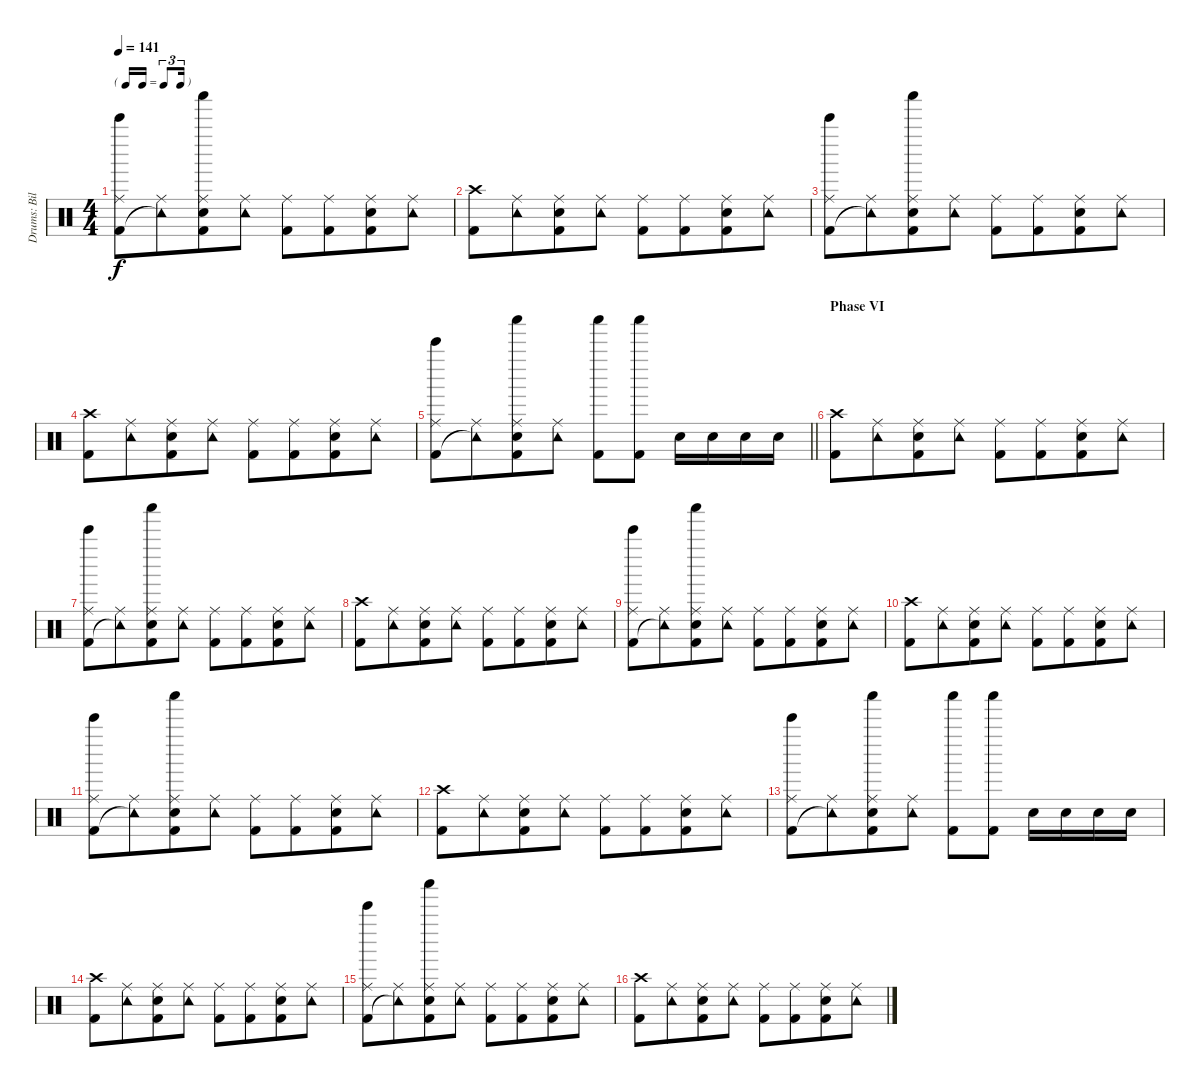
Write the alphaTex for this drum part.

\track ("Drums: Bill" "Drums: Bil") {instrument percussion}
\staff {score}
\articulation defaults
\ts (4 4)
\tf triplet16th
\tempo 141
\clef neutral
\ks c
("Ride (middle)" "Kick (hit) 2" "Bell Tree (hit)").8{dy f} ("Ride (middle)" "Tambourine (hit)"{t}).8{beam merge} ("Ride (middle)" "Electric Snare (hit)" "Kick (hit) 2" "Shaker (hit)").8 ("Ride (middle)" "Tambourine (hit)").8 ("Ride (middle)" "Kick (hit) 2").8 ("Ride (middle)" "Kick (hit) 2").8{beam merge} ("Ride (middle)" "Electric Snare (hit)" "Kick (hit) 2").8 ("Ride (middle)" "Tambourine (hit)").8 |
("Crash high (hit)" "Kick (hit) 2").8 ("Ride (middle)" "Tambourine (hit)").8{beam merge} ("Ride (middle)" "Electric Snare (hit)" "Kick (hit) 2").8 ("Ride (middle)" "Tambourine (hit)").8 ("Ride (middle)" "Kick (hit) 2").8 ("Ride (middle)" "Kick (hit) 2").8{beam merge} ("Ride (middle)" "Electric Snare (hit)" "Kick (hit) 2").8 ("Ride (middle)" "Tambourine (hit)").8 |
("Ride (middle)" "Kick (hit) 2" "Bell Tree (hit)").8 ("Ride (middle)" "Tambourine (hit)"{t}).8{beam merge} ("Ride (middle)" "Electric Snare (hit)" "Kick (hit) 2" "Shaker (hit)").8 ("Ride (middle)" "Tambourine (hit)").8 ("Ride (middle)" "Kick (hit) 2").8 ("Ride (middle)" "Kick (hit) 2").8{beam merge} ("Ride (middle)" "Electric Snare (hit)" "Kick (hit) 2").8 ("Ride (middle)" "Tambourine (hit)").8 |
("Crash high (hit)" "Kick (hit) 2").8 ("Ride (middle)" "Tambourine (hit)").8{beam merge} ("Ride (middle)" "Electric Snare (hit)" "Kick (hit) 2").8 ("Ride (middle)" "Tambourine (hit)").8 ("Ride (middle)" "Kick (hit) 2").8 ("Ride (middle)" "Kick (hit) 2").8{beam merge} ("Ride (middle)" "Electric Snare (hit)" "Kick (hit) 2").8 ("Ride (middle)" "Tambourine (hit)").8 |
\barLineRight lightlight
("Ride (middle)" "Kick (hit) 2" "Bell Tree (hit)").8 ("Ride (middle)" "Tambourine (hit)"{t}).8{beam merge} ("Ride (middle)" "Electric Snare (hit)" "Kick (hit) 2" "Shaker (hit)").8 ("Ride (middle)" "Tambourine (hit)").8 ("Shaker (hit)" "Kick (hit) 2").8 ("Shaker (hit)" "Kick (hit) 2").8 "Electric Snare (hit)".16 "Electric Snare (hit)".16 "Electric Snare (hit)".16 "Electric Snare (hit)".16 |
\section ("" "Phase VI")
("Crash high (hit)" "Kick (hit) 2").8 ("Ride (middle)" "Tambourine (hit)").8{beam merge} ("Ride (middle)" "Electric Snare (hit)" "Kick (hit) 2").8 ("Ride (middle)" "Tambourine (hit)").8 ("Ride (middle)" "Kick (hit) 2").8 ("Ride (middle)" "Kick (hit) 2").8{beam merge} ("Ride (middle)" "Electric Snare (hit)" "Kick (hit) 2").8 ("Ride (middle)" "Tambourine (hit)").8 |
("Ride (middle)" "Kick (hit) 2" "Bell Tree (hit)").8 ("Ride (middle)" "Tambourine (hit)"{t}).8{beam merge} ("Ride (middle)" "Electric Snare (hit)" "Kick (hit) 2" "Shaker (hit)").8 ("Ride (middle)" "Tambourine (hit)").8 ("Ride (middle)" "Kick (hit) 2").8 ("Ride (middle)" "Kick (hit) 2").8{beam merge} ("Ride (middle)" "Electric Snare (hit)" "Kick (hit) 2").8 ("Ride (middle)" "Tambourine (hit)").8 |
("Crash high (hit)" "Kick (hit) 2").8 ("Ride (middle)" "Tambourine (hit)").8{beam merge} ("Ride (middle)" "Electric Snare (hit)" "Kick (hit) 2").8 ("Ride (middle)" "Tambourine (hit)").8 ("Ride (middle)" "Kick (hit) 2").8 ("Ride (middle)" "Kick (hit) 2").8{beam merge} ("Ride (middle)" "Electric Snare (hit)" "Kick (hit) 2").8 ("Ride (middle)" "Tambourine (hit)").8 |
("Ride (middle)" "Kick (hit) 2" "Bell Tree (hit)").8 ("Ride (middle)" "Tambourine (hit)"{t}).8{beam merge} ("Ride (middle)" "Electric Snare (hit)" "Kick (hit) 2" "Shaker (hit)").8 ("Ride (middle)" "Tambourine (hit)").8 ("Ride (middle)" "Kick (hit) 2").8 ("Ride (middle)" "Kick (hit) 2").8{beam merge} ("Ride (middle)" "Electric Snare (hit)" "Kick (hit) 2").8 ("Ride (middle)" "Tambourine (hit)").8 |
("Crash high (hit)" "Kick (hit) 2").8 ("Ride (middle)" "Tambourine (hit)").8{beam merge} ("Ride (middle)" "Electric Snare (hit)" "Kick (hit) 2").8 ("Ride (middle)" "Tambourine (hit)").8 ("Ride (middle)" "Kick (hit) 2").8 ("Ride (middle)" "Kick (hit) 2").8{beam merge} ("Ride (middle)" "Electric Snare (hit)" "Kick (hit) 2").8 ("Ride (middle)" "Tambourine (hit)").8 |
("Ride (middle)" "Kick (hit) 2" "Bell Tree (hit)").8 ("Ride (middle)" "Tambourine (hit)"{t}).8{beam merge} ("Ride (middle)" "Electric Snare (hit)" "Kick (hit) 2" "Shaker (hit)").8 ("Ride (middle)" "Tambourine (hit)").8 ("Ride (middle)" "Kick (hit) 2").8 ("Ride (middle)" "Kick (hit) 2").8{beam merge} ("Ride (middle)" "Electric Snare (hit)" "Kick (hit) 2").8 ("Ride (middle)" "Tambourine (hit)").8 |
("Crash high (hit)" "Kick (hit) 2").8 ("Ride (middle)" "Tambourine (hit)").8{beam merge} ("Ride (middle)" "Electric Snare (hit)" "Kick (hit) 2").8 ("Ride (middle)" "Tambourine (hit)").8 ("Ride (middle)" "Kick (hit) 2").8 ("Ride (middle)" "Kick (hit) 2").8{beam merge} ("Ride (middle)" "Electric Snare (hit)" "Kick (hit) 2").8 ("Ride (middle)" "Tambourine (hit)").8 |
("Ride (middle)" "Kick (hit) 2" "Bell Tree (hit)").8 ("Ride (middle)" "Tambourine (hit)"{t}).8{beam merge} ("Ride (middle)" "Electric Snare (hit)" "Kick (hit) 2" "Shaker (hit)").8 ("Ride (middle)" "Tambourine (hit)").8 ("Shaker (hit)" "Kick (hit) 2").8 ("Shaker (hit)" "Kick (hit) 2").8 "Electric Snare (hit)".16 "Electric Snare (hit)".16 "Electric Snare (hit)".16 "Electric Snare (hit)".16 |
("Crash high (hit)" "Kick (hit) 2").8 ("Ride (middle)" "Tambourine (hit)").8{beam merge} ("Ride (middle)" "Electric Snare (hit)" "Kick (hit) 2").8 ("Ride (middle)" "Tambourine (hit)").8 ("Ride (middle)" "Kick (hit) 2").8 ("Ride (middle)" "Kick (hit) 2").8{beam merge} ("Ride (middle)" "Electric Snare (hit)" "Kick (hit) 2").8 ("Ride (middle)" "Tambourine (hit)").8 |
("Ride (middle)" "Kick (hit) 2" "Bell Tree (hit)").8 ("Ride (middle)" "Tambourine (hit)"{t}).8{beam merge} ("Ride (middle)" "Electric Snare (hit)" "Kick (hit) 2" "Shaker (hit)").8 ("Ride (middle)" "Tambourine (hit)").8 ("Ride (middle)" "Kick (hit) 2").8 ("Ride (middle)" "Kick (hit) 2").8{beam merge} ("Ride (middle)" "Electric Snare (hit)" "Kick (hit) 2").8 ("Ride (middle)" "Tambourine (hit)").8 |
("Crash high (hit)" "Kick (hit) 2").8 ("Ride (middle)" "Tambourine (hit)").8{beam merge} ("Ride (middle)" "Electric Snare (hit)" "Kick (hit) 2").8 ("Ride (middle)" "Tambourine (hit)").8 ("Ride (middle)" "Kick (hit) 2").8 ("Ride (middle)" "Kick (hit) 2").8{beam merge} ("Ride (middle)" "Electric Snare (hit)" "Kick (hit) 2").8 ("Ride (middle)" "Tambourine (hit)").8
